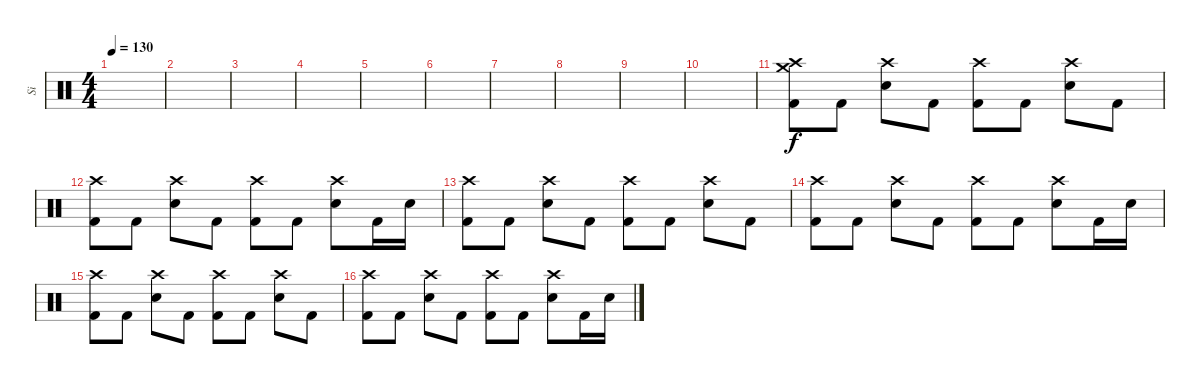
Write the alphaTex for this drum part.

\track ("Si" "Si") {instrument percussion}
\staff {score}
\articulation defaults
\ts (4 4)
\tempo 130
\clef neutral
\ks c
|
|
|
|
|
|
|
|
|
|
("Crash medium (hit)" "Crash high (hit)" "Kick (hit) 2").8 "Kick (hit) 2".8 ("Crash high (hit)" "Electric Snare (hit)").8 "Kick (hit) 2".8 ("Crash high (hit)" "Kick (hit) 2").8 "Kick (hit) 2".8 ("Crash high (hit)" "Electric Snare (hit)").8 "Kick (hit) 2".8 |
("Crash high (hit)" "Kick (hit) 2").8 "Kick (hit) 2".8 ("Crash high (hit)" "Electric Snare (hit)").8 "Kick (hit) 2".8 ("Crash high (hit)" "Kick (hit) 2").8 "Kick (hit) 2".8 ("Crash high (hit)" "Electric Snare (hit)").8 "Kick (hit) 2".16 "Electric Snare (hit)".16 |
("Crash high (hit)" "Kick (hit) 2").8 "Kick (hit) 2".8 ("Crash high (hit)" "Electric Snare (hit)").8 "Kick (hit) 2".8 ("Crash high (hit)" "Kick (hit) 2").8 "Kick (hit) 2".8 ("Crash high (hit)" "Electric Snare (hit)").8 "Kick (hit) 2".8 |
("Crash high (hit)" "Kick (hit) 2").8 "Kick (hit) 2".8 ("Crash high (hit)" "Electric Snare (hit)").8 "Kick (hit) 2".8 ("Crash high (hit)" "Kick (hit) 2").8 "Kick (hit) 2".8 ("Crash high (hit)" "Electric Snare (hit)").8 "Kick (hit) 2".16 "Electric Snare (hit)".16 |
("Crash high (hit)" "Kick (hit) 2").8 "Kick (hit) 2".8 ("Crash high (hit)" "Electric Snare (hit)").8 "Kick (hit) 2".8 ("Crash high (hit)" "Kick (hit) 2").8 "Kick (hit) 2".8 ("Crash high (hit)" "Electric Snare (hit)").8 "Kick (hit) 2".8 |
("Crash high (hit)" "Kick (hit) 2").8 "Kick (hit) 2".8 ("Crash high (hit)" "Electric Snare (hit)").8 "Kick (hit) 2".8 ("Crash high (hit)" "Kick (hit) 2").8 "Kick (hit) 2".8 ("Crash high (hit)" "Electric Snare (hit)").8 "Kick (hit) 2".16 "Electric Snare (hit)".16
